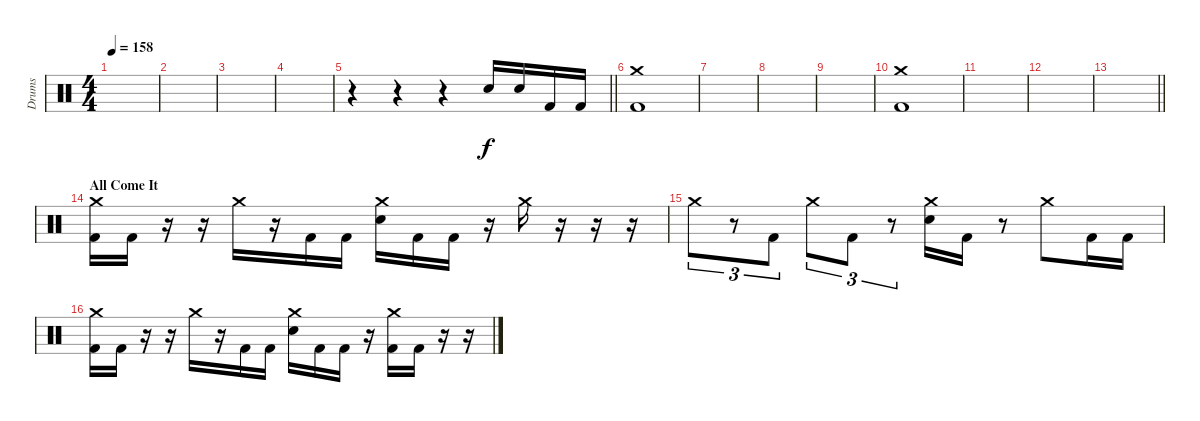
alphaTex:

\track ("Drums" "Drums") {instrument percussion}
\staff {score}
\articulation defaults
\ts (4 4)
\tempo 158
\clef neutral
\ks c
|
|
|
|
\barLineRight lightlight
r.4 r.4 r.4 "Electric Snare (hit)".16 "Electric Snare (hit)".16 "Kick (hit) 2".16 "Kick (hit) 2".16 |
\section ("" "")
("Crash medium (hit)" "Kick (hit) 2").1 |
|
|
|
("Crash medium (hit)" "Kick (hit) 2").1 |
|
|
\barLineRight lightlight
|
\section ("" "All Come It")
("Crash medium (hit)" "Kick (hit) 2").16 "Kick (hit) 2".16 r.16 r.16 "Crash medium (hit)".16 r.16 "Kick (hit) 2".16 "Kick (hit) 2".16 ("Crash medium (hit)" "Electric Snare (hit)").16 "Kick (hit) 2".16 "Kick (hit) 2".16 r.16 "Crash medium (hit)".16 r.16 r.16 r.16 |
"Crash medium (hit)".8{tu (3 2)} r.8{tu (3 2)} "Kick (hit) 2".8{tu (3 2)} "Crash medium (hit)".8{tu (3 2)} "Kick (hit) 2".8{tu (3 2)} r.8{tu (3 2)} ("Crash medium (hit)" "Electric Snare (hit)").16 "Kick (hit) 2".16 r.8 "Crash medium (hit)".8 "Kick (hit) 2".16 "Kick (hit) 2".16 |
("Crash medium (hit)" "Kick (hit) 2").16 "Kick (hit) 2".16 r.16 r.16 "Crash medium (hit)".16 r.16 "Kick (hit) 2".16 "Kick (hit) 2".16 ("Crash medium (hit)" "Electric Snare (hit)").16 "Kick (hit) 2".16 "Kick (hit) 2".16 r.16 ("Crash medium (hit)" "Kick (hit) 2").16 "Kick (hit) 2".16 r.16 r.16
